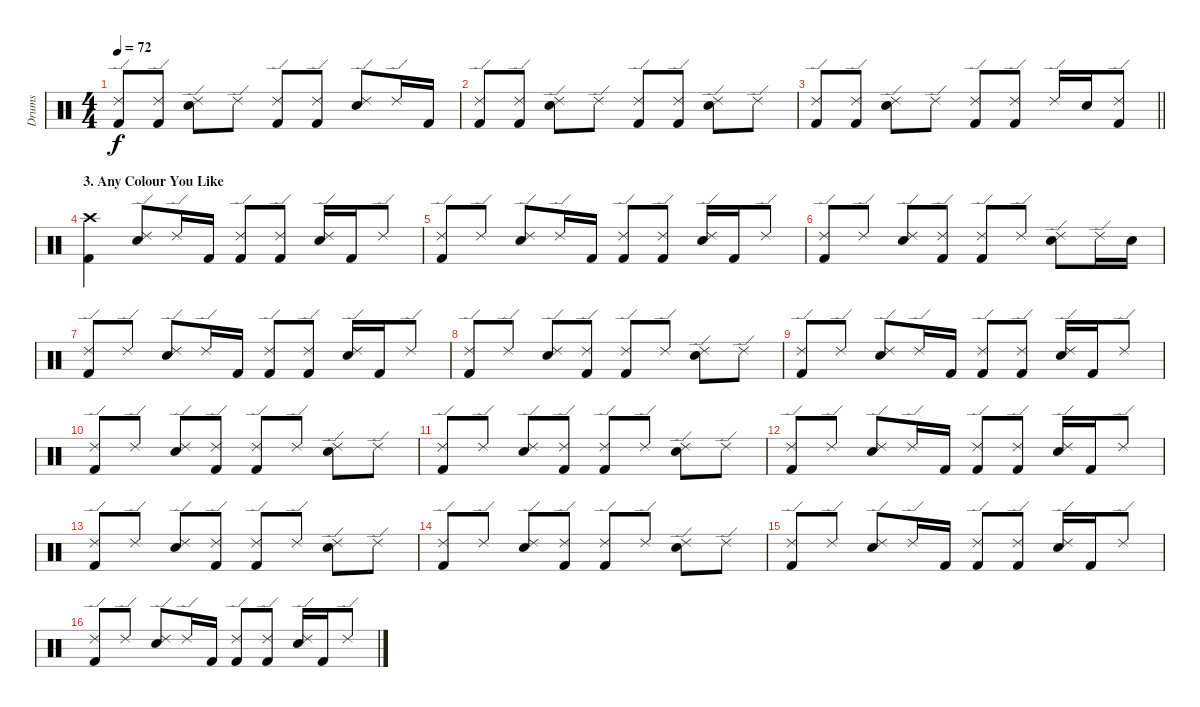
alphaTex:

\track ("Drums" "Drums") {instrument percussion}
\staff {score}
\articulation defaults
\ts (4 4)
\tempo 72
\clef neutral
\ks c
("Ride (edge) 2" "Kick (hit) 2").8{dy f} ("Ride (edge) 2" "Kick (hit) 2").8 ("Ride (edge) 2" "Electric Snare (hit)").8 "Ride (edge) 2".8 ("Ride (edge) 2" "Kick (hit) 2").8 ("Ride (edge) 2" "Kick (hit) 2").8 ("Ride (edge) 2" "Electric Snare (hit)").8 "Ride (edge) 2".16 "Kick (hit) 2".16 |
("Ride (edge) 2" "Kick (hit) 2").8 ("Ride (edge) 2" "Kick (hit) 2").8 ("Ride (edge) 2" "Electric Snare (hit)").8 "Ride (edge) 2".8 ("Ride (edge) 2" "Kick (hit) 2").8 ("Ride (edge) 2" "Kick (hit) 2").8 ("Ride (edge) 2" "Electric Snare (hit)").8 "Ride (edge) 2".8 |
\barLineRight lightlight
("Ride (edge) 2" "Kick (hit) 2").8 ("Ride (edge) 2" "Kick (hit) 2").8 ("Ride (edge) 2" "Electric Snare (hit)").8 "Ride (edge) 2".8 ("Ride (edge) 2" "Kick (hit) 2").8 ("Ride (edge) 2" "Kick (hit) 2").8 "Ride (edge) 2".16 "Electric Snare (hit)".16 ("Ride (edge) 2" "Kick (hit) 2").8 |
\section ("" "3. Any Colour You Like")
("Crash high (hit)" "Kick (hit) 2").4 ("Ride (edge) 2" "Electric Snare (hit)").8 "Ride (edge) 2".16 "Kick (hit) 2".16 ("Ride (edge) 2" "Kick (hit) 2").8 ("Ride (edge) 2" "Kick (hit) 2").8 ("Ride (edge) 2" "Electric Snare (hit)").16 "Kick (hit) 2".16 "Ride (edge) 2".8 |
("Ride (edge) 2" "Kick (hit) 2").8 "Ride (edge) 2".8 ("Ride (edge) 2" "Electric Snare (hit)").8 "Ride (edge) 2".16 "Kick (hit) 2".16 ("Ride (edge) 2" "Kick (hit) 2").8 ("Ride (edge) 2" "Kick (hit) 2").8 ("Ride (edge) 2" "Electric Snare (hit)").16 "Kick (hit) 2".16 "Ride (edge) 2".8 |
("Ride (edge) 2" "Kick (hit) 2").8 "Ride (edge) 2".8 ("Ride (edge) 2" "Electric Snare (hit)").8 ("Ride (edge) 2" "Kick (hit) 2").8 ("Ride (edge) 2" "Kick (hit) 2").8 "Ride (edge) 2".8 ("Ride (edge) 2" "Electric Snare (hit)").8 "Ride (edge) 2".16 "Electric Snare (hit)".16 |
("Ride (edge) 2" "Kick (hit) 2").8 "Ride (edge) 2".8 ("Ride (edge) 2" "Electric Snare (hit)").8 "Ride (edge) 2".16 "Kick (hit) 2".16 ("Ride (edge) 2" "Kick (hit) 2").8 ("Ride (edge) 2" "Kick (hit) 2").8 ("Ride (edge) 2" "Electric Snare (hit)").16 "Kick (hit) 2".16 "Ride (edge) 2".8 |
("Ride (edge) 2" "Kick (hit) 2").8 "Ride (edge) 2".8 ("Ride (edge) 2" "Electric Snare (hit)").8 ("Ride (edge) 2" "Kick (hit) 2").8 ("Ride (edge) 2" "Kick (hit) 2").8 "Ride (edge) 2".8 ("Ride (edge) 2" "Electric Snare (hit)").8 "Ride (edge) 2".8 |
("Ride (edge) 2" "Kick (hit) 2").8 "Ride (edge) 2".8 ("Ride (edge) 2" "Electric Snare (hit)").8 "Ride (edge) 2".16 "Kick (hit) 2".16 ("Ride (edge) 2" "Kick (hit) 2").8 ("Ride (edge) 2" "Kick (hit) 2").8 ("Ride (edge) 2" "Electric Snare (hit)").16 "Kick (hit) 2".16 "Ride (edge) 2".8 |
("Ride (edge) 2" "Kick (hit) 2").8 "Ride (edge) 2".8 ("Ride (edge) 2" "Electric Snare (hit)").8 ("Ride (edge) 2" "Kick (hit) 2").8 ("Ride (edge) 2" "Kick (hit) 2").8 "Ride (edge) 2".8 ("Ride (edge) 2" "Electric Snare (hit)").8 "Ride (edge) 2".8 |
("Ride (edge) 2" "Kick (hit) 2").8 "Ride (edge) 2".8 ("Ride (edge) 2" "Electric Snare (hit)").8 ("Ride (edge) 2" "Kick (hit) 2").8 ("Ride (edge) 2" "Kick (hit) 2").8 "Ride (edge) 2".8 ("Ride (edge) 2" "Electric Snare (hit)").8 "Ride (edge) 2".8 |
("Ride (edge) 2" "Kick (hit) 2").8 "Ride (edge) 2".8 ("Ride (edge) 2" "Electric Snare (hit)").8 "Ride (edge) 2".16 "Kick (hit) 2".16 ("Ride (edge) 2" "Kick (hit) 2").8 ("Ride (edge) 2" "Kick (hit) 2").8 ("Ride (edge) 2" "Electric Snare (hit)").16 "Kick (hit) 2".16 "Ride (edge) 2".8 |
("Ride (edge) 2" "Kick (hit) 2").8 "Ride (edge) 2".8 ("Ride (edge) 2" "Electric Snare (hit)").8 ("Ride (edge) 2" "Kick (hit) 2").8 ("Ride (edge) 2" "Kick (hit) 2").8 "Ride (edge) 2".8 ("Ride (edge) 2" "Electric Snare (hit)").8 "Ride (edge) 2".8 |
("Ride (edge) 2" "Kick (hit) 2").8 "Ride (edge) 2".8 ("Ride (edge) 2" "Electric Snare (hit)").8 ("Ride (edge) 2" "Kick (hit) 2").8 ("Ride (edge) 2" "Kick (hit) 2").8 "Ride (edge) 2".8 ("Ride (edge) 2" "Electric Snare (hit)").8 "Ride (edge) 2".8 |
("Ride (edge) 2" "Kick (hit) 2").8 "Ride (edge) 2".8 ("Ride (edge) 2" "Electric Snare (hit)").8 "Ride (edge) 2".16 "Kick (hit) 2".16 ("Ride (edge) 2" "Kick (hit) 2").8 ("Ride (edge) 2" "Kick (hit) 2").8 ("Ride (edge) 2" "Electric Snare (hit)").16 "Kick (hit) 2".16 "Ride (edge) 2".8 |
("Ride (edge) 2" "Kick (hit) 2").8 "Ride (edge) 2".8 ("Ride (edge) 2" "Electric Snare (hit)").8 "Ride (edge) 2".16 "Kick (hit) 2".16 ("Ride (edge) 2" "Kick (hit) 2").8 ("Ride (edge) 2" "Kick (hit) 2").8 ("Ride (edge) 2" "Electric Snare (hit)").16 "Kick (hit) 2".16 "Ride (edge) 2".8
